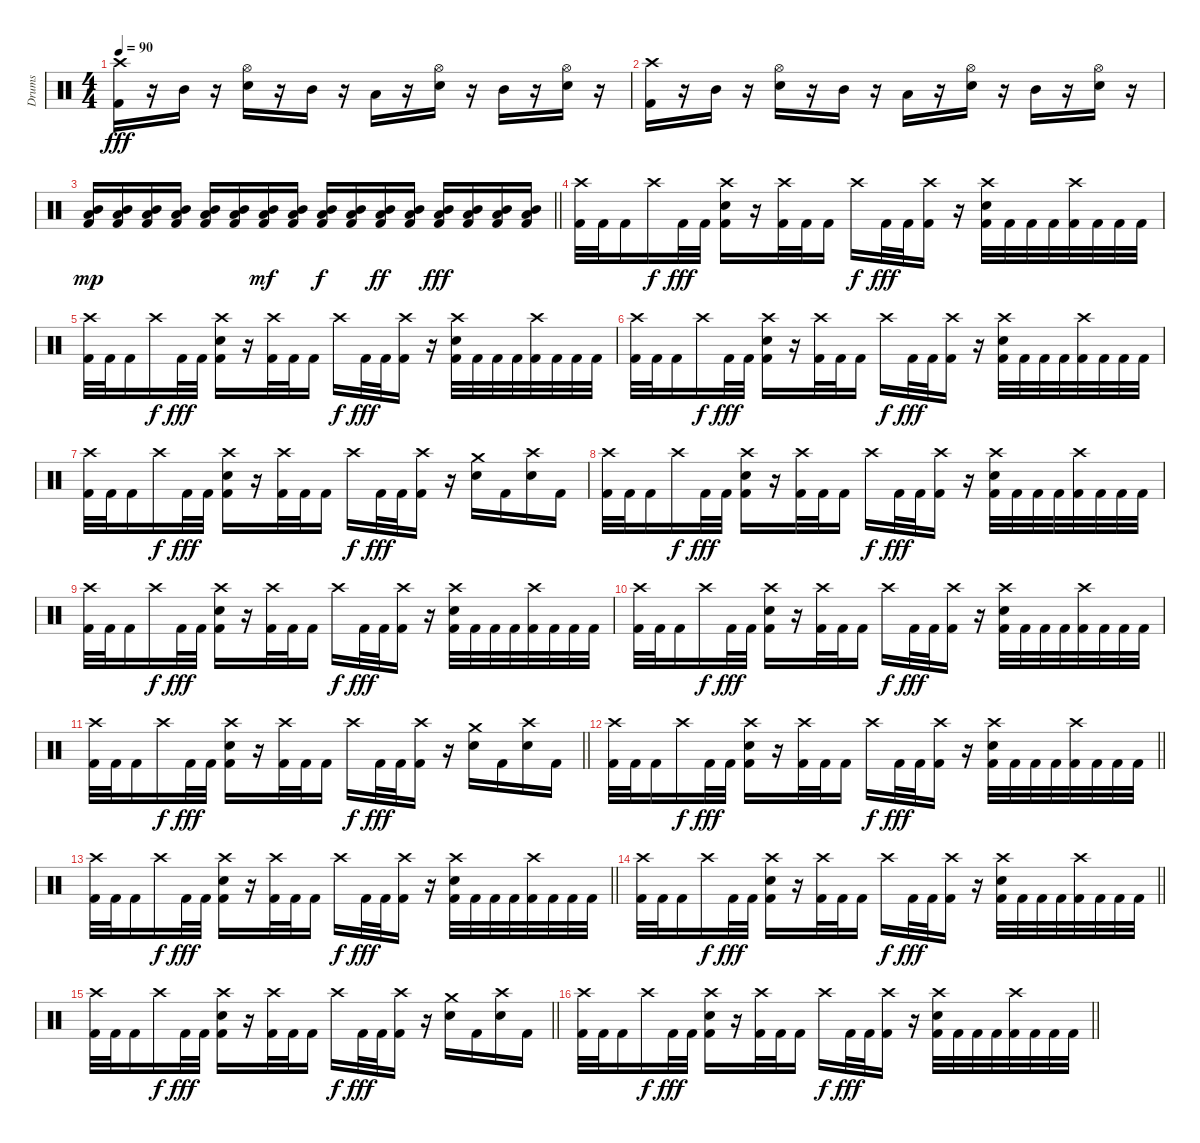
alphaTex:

\track ("Drums" "Drums") {instrument percussion}
\staff {score}
\articulation defaults
\ts (4 4)
\tempo 90
\clef neutral
\ks c
("Crash high (hit)" "Kick (hit) 2").16{dy fff} r.16 "Mid Tom (hit)".16 r.16 ("Hi-Hat (open)" "Electric Snare (hit)").16 r.16 "Mid Tom (hit)".16 r.16 "Low Floor Tom (hit)".16 r.16 ("Hi-Hat (open)" "Electric Snare (hit)").16 r.16 "Mid Tom (hit)".16 r.16 ("Hi-Hat (open)" "Electric Snare (hit)").16 r.16 |
("Crash high (hit)" "Kick (hit) 2").16 r.16 "Mid Tom (hit)".16 r.16 ("Hi-Hat (open)" "Electric Snare (hit)").16 r.16 "Mid Tom (hit)".16 r.16 "Low Floor Tom (hit)".16 r.16 ("Hi-Hat (open)" "Electric Snare (hit)").16 r.16 "Mid Tom (hit)".16 r.16 ("Hi-Hat (open)" "Electric Snare (hit)").16 r.16 |
\barLineRight lightlight
("Mid Tom (hit)" "Low Floor Tom (hit)" "Kick (hit) 2").16{dy mp} ("Mid Tom (hit)" "Low Floor Tom (hit)" "Kick (hit) 2").16 ("Mid Tom (hit)" "Low Floor Tom (hit)" "Kick (hit) 2").16 ("Mid Tom (hit)" "Low Floor Tom (hit)" "Kick (hit) 2").16 ("Mid Tom (hit)" "Low Floor Tom (hit)" "Kick (hit) 2").16 ("Mid Tom (hit)" "Low Floor Tom (hit)" "Kick (hit) 2").16 ("Mid Tom (hit)" "Low Floor Tom (hit)" "Kick (hit) 2").16{dy mf} ("Mid Tom (hit)" "Low Floor Tom (hit)" "Kick (hit) 2").16 ("Mid Tom (hit)" "Low Floor Tom (hit)" "Kick (hit) 2").16{dy f} ("Mid Tom (hit)" "Low Floor Tom (hit)" "Kick (hit) 2").16 ("Mid Tom (hit)" "Low Floor Tom (hit)" "Kick (hit) 2").16{dy ff} ("Mid Tom (hit)" "Low Floor Tom (hit)" "Kick (hit) 2").16 ("Mid Tom (hit)" "Low Floor Tom (hit)" "Kick (hit) 2").16{dy fff} ("Mid Tom (hit)" "Low Floor Tom (hit)" "Kick (hit) 2").16 ("Mid Tom (hit)" "Low Floor Tom (hit)" "Kick (hit) 2").16 ("Mid Tom (hit)" "Low Floor Tom (hit)" "Kick (hit) 2").16 |
\section ("" "")
("Crash high (hit)" "Kick (hit) 2").32 "Kick (hit) 2".32 "Kick (hit) 2".16 "Crash high (hit)".16{dy f} "Kick (hit) 2".32{dy fff} "Kick (hit) 2".32 ("Crash high (hit)" "Electric Snare (hit)" "Kick (hit) 2").16 r.16 ("Crash high (hit)" "Kick (hit) 2").32 "Kick (hit) 2".32 "Kick (hit) 2".16 "Crash high (hit)".16{dy f} "Kick (hit) 2".32{dy fff} "Kick (hit) 2".32 ("Crash high (hit)" "Kick (hit) 2").16 r.16 ("Crash high (hit)" "Electric Snare (hit)" "Kick (hit) 2").32 "Kick (hit) 2".32 "Kick (hit) 2".32 "Kick (hit) 2".32 ("Crash high (hit)" "Kick (hit) 2").32 "Kick (hit) 2".32 "Kick (hit) 2".32 "Kick (hit) 2".32 |
("Crash high (hit)" "Kick (hit) 2").32 "Kick (hit) 2".32 "Kick (hit) 2".16 "Crash high (hit)".16{dy f} "Kick (hit) 2".32{dy fff} "Kick (hit) 2".32 ("Crash high (hit)" "Electric Snare (hit)" "Kick (hit) 2").16 r.16 ("Crash high (hit)" "Kick (hit) 2").32 "Kick (hit) 2".32 "Kick (hit) 2".16 "Crash high (hit)".16{dy f} "Kick (hit) 2".32{dy fff} "Kick (hit) 2".32 ("Crash high (hit)" "Kick (hit) 2").16 r.16 ("Crash high (hit)" "Electric Snare (hit)" "Kick (hit) 2").32 "Kick (hit) 2".32 "Kick (hit) 2".32 "Kick (hit) 2".32 ("Crash high (hit)" "Kick (hit) 2").32 "Kick (hit) 2".32 "Kick (hit) 2".32 "Kick (hit) 2".32 |
("Crash high (hit)" "Kick (hit) 2").32 "Kick (hit) 2".32 "Kick (hit) 2".16 "Crash high (hit)".16{dy f} "Kick (hit) 2".32{dy fff} "Kick (hit) 2".32 ("Crash high (hit)" "Electric Snare (hit)" "Kick (hit) 2").16 r.16 ("Crash high (hit)" "Kick (hit) 2").32 "Kick (hit) 2".32 "Kick (hit) 2".16 "Crash high (hit)".16{dy f} "Kick (hit) 2".32{dy fff} "Kick (hit) 2".32 ("Crash high (hit)" "Kick (hit) 2").16 r.16 ("Crash high (hit)" "Electric Snare (hit)" "Kick (hit) 2").32 "Kick (hit) 2".32 "Kick (hit) 2".32 "Kick (hit) 2".32 ("Crash high (hit)" "Kick (hit) 2").32 "Kick (hit) 2".32 "Kick (hit) 2".32 "Kick (hit) 2".32 |
("Crash high (hit)" "Kick (hit) 2").32 "Kick (hit) 2".32 "Kick (hit) 2".16 "Crash high (hit)".16{dy f} "Kick (hit) 2".32{dy fff} "Kick (hit) 2".32 ("Crash high (hit)" "Electric Snare (hit)" "Kick (hit) 2").16 r.16 ("Crash high (hit)" "Kick (hit) 2").32 "Kick (hit) 2".32 "Kick (hit) 2".16 "Crash high (hit)".16{dy f} "Kick (hit) 2".32{dy fff} "Kick (hit) 2".32 ("Crash high (hit)" "Kick (hit) 2").16 r.16 ("Crash medium (hit)" "Electric Snare (hit)").16 "Kick (hit) 2".16 ("Crash high (hit)" "Electric Snare (hit)").16 "Kick (hit) 2".16 |
("Crash high (hit)" "Kick (hit) 2").32 "Kick (hit) 2".32 "Kick (hit) 2".16 "Crash high (hit)".16{dy f} "Kick (hit) 2".32{dy fff} "Kick (hit) 2".32 ("Crash high (hit)" "Electric Snare (hit)" "Kick (hit) 2").16 r.16 ("Crash high (hit)" "Kick (hit) 2").32 "Kick (hit) 2".32 "Kick (hit) 2".16 "Crash high (hit)".16{dy f} "Kick (hit) 2".32{dy fff} "Kick (hit) 2".32 ("Crash high (hit)" "Kick (hit) 2").16 r.16 ("Crash high (hit)" "Electric Snare (hit)" "Kick (hit) 2").32 "Kick (hit) 2".32 "Kick (hit) 2".32 "Kick (hit) 2".32 ("Crash high (hit)" "Kick (hit) 2").32 "Kick (hit) 2".32 "Kick (hit) 2".32 "Kick (hit) 2".32 |
("Crash high (hit)" "Kick (hit) 2").32 "Kick (hit) 2".32 "Kick (hit) 2".16 "Crash high (hit)".16{dy f} "Kick (hit) 2".32{dy fff} "Kick (hit) 2".32 ("Crash high (hit)" "Electric Snare (hit)" "Kick (hit) 2").16 r.16 ("Crash high (hit)" "Kick (hit) 2").32 "Kick (hit) 2".32 "Kick (hit) 2".16 "Crash high (hit)".16{dy f} "Kick (hit) 2".32{dy fff} "Kick (hit) 2".32 ("Crash high (hit)" "Kick (hit) 2").16 r.16 ("Crash high (hit)" "Electric Snare (hit)" "Kick (hit) 2").32 "Kick (hit) 2".32 "Kick (hit) 2".32 "Kick (hit) 2".32 ("Crash high (hit)" "Kick (hit) 2").32 "Kick (hit) 2".32 "Kick (hit) 2".32 "Kick (hit) 2".32 |
("Crash high (hit)" "Kick (hit) 2").32 "Kick (hit) 2".32 "Kick (hit) 2".16 "Crash high (hit)".16{dy f} "Kick (hit) 2".32{dy fff} "Kick (hit) 2".32 ("Crash high (hit)" "Electric Snare (hit)" "Kick (hit) 2").16 r.16 ("Crash high (hit)" "Kick (hit) 2").32 "Kick (hit) 2".32 "Kick (hit) 2".16 "Crash high (hit)".16{dy f} "Kick (hit) 2".32{dy fff} "Kick (hit) 2".32 ("Crash high (hit)" "Kick (hit) 2").16 r.16 ("Crash high (hit)" "Electric Snare (hit)" "Kick (hit) 2").32 "Kick (hit) 2".32 "Kick (hit) 2".32 "Kick (hit) 2".32 ("Crash high (hit)" "Kick (hit) 2").32 "Kick (hit) 2".32 "Kick (hit) 2".32 "Kick (hit) 2".32 |
\barLineRight lightlight
("Crash high (hit)" "Kick (hit) 2").32 "Kick (hit) 2".32 "Kick (hit) 2".16 "Crash high (hit)".16{dy f} "Kick (hit) 2".32{dy fff} "Kick (hit) 2".32 ("Crash high (hit)" "Electric Snare (hit)" "Kick (hit) 2").16 r.16 ("Crash high (hit)" "Kick (hit) 2").32 "Kick (hit) 2".32 "Kick (hit) 2".16 "Crash high (hit)".16{dy f} "Kick (hit) 2".32{dy fff} "Kick (hit) 2".32 ("Crash high (hit)" "Kick (hit) 2").16 r.16 ("Crash medium (hit)" "Electric Snare (hit)").16 "Kick (hit) 2".16 ("Crash high (hit)" "Electric Snare (hit)").16 "Kick (hit) 2".16 |
\barLineRight lightlight
("Crash high (hit)" "Kick (hit) 2").32 "Kick (hit) 2".32 "Kick (hit) 2".16 "Crash high (hit)".16{dy f} "Kick (hit) 2".32{dy fff} "Kick (hit) 2".32 ("Crash high (hit)" "Electric Snare (hit)" "Kick (hit) 2").16 r.16 ("Crash high (hit)" "Kick (hit) 2").32 "Kick (hit) 2".32 "Kick (hit) 2".16 "Crash high (hit)".16{dy f} "Kick (hit) 2".32{dy fff} "Kick (hit) 2".32 ("Crash high (hit)" "Kick (hit) 2").16 r.16 ("Crash high (hit)" "Electric Snare (hit)" "Kick (hit) 2").32 "Kick (hit) 2".32 "Kick (hit) 2".32 "Kick (hit) 2".32 ("Crash high (hit)" "Kick (hit) 2").32 "Kick (hit) 2".32 "Kick (hit) 2".32 "Kick (hit) 2".32 |
\barLineRight lightlight
("Crash high (hit)" "Kick (hit) 2").32 "Kick (hit) 2".32 "Kick (hit) 2".16 "Crash high (hit)".16{dy f} "Kick (hit) 2".32{dy fff} "Kick (hit) 2".32 ("Crash high (hit)" "Electric Snare (hit)" "Kick (hit) 2").16 r.16 ("Crash high (hit)" "Kick (hit) 2").32 "Kick (hit) 2".32 "Kick (hit) 2".16 "Crash high (hit)".16{dy f} "Kick (hit) 2".32{dy fff} "Kick (hit) 2".32 ("Crash high (hit)" "Kick (hit) 2").16 r.16 ("Crash high (hit)" "Electric Snare (hit)" "Kick (hit) 2").32 "Kick (hit) 2".32 "Kick (hit) 2".32 "Kick (hit) 2".32 ("Crash high (hit)" "Kick (hit) 2").32 "Kick (hit) 2".32 "Kick (hit) 2".32 "Kick (hit) 2".32 |
\barLineRight lightlight
("Crash high (hit)" "Kick (hit) 2").32 "Kick (hit) 2".32 "Kick (hit) 2".16 "Crash high (hit)".16{dy f} "Kick (hit) 2".32{dy fff} "Kick (hit) 2".32 ("Crash high (hit)" "Electric Snare (hit)" "Kick (hit) 2").16 r.16 ("Crash high (hit)" "Kick (hit) 2").32 "Kick (hit) 2".32 "Kick (hit) 2".16 "Crash high (hit)".16{dy f} "Kick (hit) 2".32{dy fff} "Kick (hit) 2".32 ("Crash high (hit)" "Kick (hit) 2").16 r.16 ("Crash high (hit)" "Electric Snare (hit)" "Kick (hit) 2").32 "Kick (hit) 2".32 "Kick (hit) 2".32 "Kick (hit) 2".32 ("Crash high (hit)" "Kick (hit) 2").32 "Kick (hit) 2".32 "Kick (hit) 2".32 "Kick (hit) 2".32 |
\barLineRight lightlight
("Crash high (hit)" "Kick (hit) 2").32 "Kick (hit) 2".32 "Kick (hit) 2".16 "Crash high (hit)".16{dy f} "Kick (hit) 2".32{dy fff} "Kick (hit) 2".32 ("Crash high (hit)" "Electric Snare (hit)" "Kick (hit) 2").16 r.16 ("Crash high (hit)" "Kick (hit) 2").32 "Kick (hit) 2".32 "Kick (hit) 2".16 "Crash high (hit)".16{dy f} "Kick (hit) 2".32{dy fff} "Kick (hit) 2".32 ("Crash high (hit)" "Kick (hit) 2").16 r.16 ("Crash medium (hit)" "Electric Snare (hit)").16 "Kick (hit) 2".16 ("Crash high (hit)" "Electric Snare (hit)").16 "Kick (hit) 2".16 |
\barLineRight lightlight
("Crash high (hit)" "Kick (hit) 2").32 "Kick (hit) 2".32 "Kick (hit) 2".16 "Crash high (hit)".16{dy f} "Kick (hit) 2".32{dy fff} "Kick (hit) 2".32 ("Crash high (hit)" "Electric Snare (hit)" "Kick (hit) 2").16 r.16 ("Crash high (hit)" "Kick (hit) 2").32 "Kick (hit) 2".32 "Kick (hit) 2".16 "Crash high (hit)".16{dy f} "Kick (hit) 2".32{dy fff} "Kick (hit) 2".32 ("Crash high (hit)" "Kick (hit) 2").16 r.16 ("Crash high (hit)" "Electric Snare (hit)" "Kick (hit) 2").32 "Kick (hit) 2".32 "Kick (hit) 2".32 "Kick (hit) 2".32 ("Crash high (hit)" "Kick (hit) 2").32 "Kick (hit) 2".32 "Kick (hit) 2".32 "Kick (hit) 2".32
